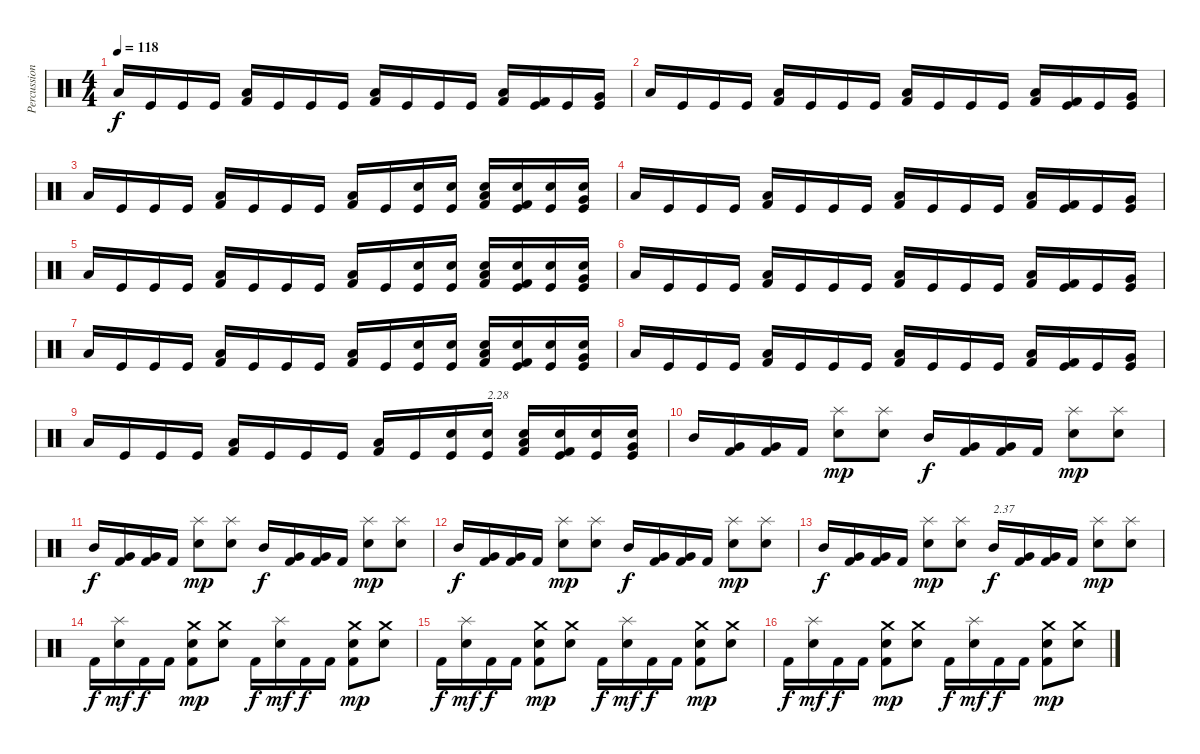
\track ("Percussions" "Percussion") {instrument percussion}
\staff {score}
\articulation defaults
\ts (4 4)
\tempo 118
\clef neutral
\ks c "Low Floor Tom (hit)".16{dy f} "Kick (hit)".16 "Kick (hit)".16 "Kick (hit)".16
("Kick (hit) 2" "Low Floor Tom (hit)").16 "Kick (hit)".16 "Kick (hit)".16 "Kick (hit)".16 ("Kick (hit) 2" "Low Floor Tom (hit)").16 "Kick (hit)".16 "Kick (hit)".16 "Kick (hit)".16 ("Kick (hit) 2" "Low Floor Tom (hit)").16 ("Kick (hit) 2" "Kick (hit)").16 "Kick (hit)".16 ("Kick (hit)" "Very Low Tom (hit)").16 |
"Low Floor Tom (hit)".16 "Kick (hit)".16 "Kick (hit)".16 "Kick (hit)".16 ("Kick (hit) 2" "Low Floor Tom (hit)").16 "Kick (hit)".16 "Kick (hit)".16 "Kick (hit)".16 ("Kick (hit) 2" "Low Floor Tom (hit)").16 "Kick (hit)".16 "Kick (hit)".16 "Kick (hit)".16 ("Kick (hit) 2" "Low Floor Tom (hit)").16 ("Kick (hit) 2" "Kick (hit)").16 "Kick (hit)".16 ("Kick (hit)" "Very Low Tom (hit)").16 |
"Low Floor Tom (hit)".16 "Kick (hit)".16 "Kick (hit)".16 "Kick (hit)".16 ("Kick (hit) 2" "Low Floor Tom (hit)").16 "Kick (hit)".16 "Kick (hit)".16 "Kick (hit)".16 ("Kick (hit) 2" "Low Floor Tom (hit)").16 "Kick (hit)".16 ("Kick (hit)" "Electric Snare (hit)").16 ("Kick (hit)" "Electric Snare (hit)").16 ("Kick (hit) 2" "Low Floor Tom (hit)" "Electric Snare (hit)").16 ("Kick (hit) 2" "Kick (hit)" "Electric Snare (hit)").16 ("Kick (hit)" "Electric Snare (hit)").16 ("Kick (hit)" "Very Low Tom (hit)" "Electric Snare (hit)").16 |
"Low Floor Tom (hit)".16 "Kick (hit)".16 "Kick (hit)".16 "Kick (hit)".16 ("Kick (hit) 2" "Low Floor Tom (hit)").16 "Kick (hit)".16 "Kick (hit)".16 "Kick (hit)".16 ("Kick (hit) 2" "Low Floor Tom (hit)").16 "Kick (hit)".16 "Kick (hit)".16 "Kick (hit)".16 ("Kick (hit) 2" "Low Floor Tom (hit)").16 ("Kick (hit) 2" "Kick (hit)").16 "Kick (hit)".16 ("Kick (hit)" "Very Low Tom (hit)").16 |
"Low Floor Tom (hit)".16 "Kick (hit)".16 "Kick (hit)".16 "Kick (hit)".16 ("Kick (hit) 2" "Low Floor Tom (hit)").16 "Kick (hit)".16 "Kick (hit)".16 "Kick (hit)".16 ("Kick (hit) 2" "Low Floor Tom (hit)").16 "Kick (hit)".16 ("Kick (hit)" "Electric Snare (hit)").16 ("Kick (hit)" "Electric Snare (hit)").16 ("Kick (hit) 2" "Low Floor Tom (hit)" "Electric Snare (hit)").16 ("Kick (hit) 2" "Kick (hit)" "Electric Snare (hit)").16 ("Kick (hit)" "Electric Snare (hit)").16 ("Kick (hit)" "Very Low Tom (hit)" "Electric Snare (hit)").16 |
"Low Floor Tom (hit)".16 "Kick (hit)".16 "Kick (hit)".16 "Kick (hit)".16 ("Kick (hit) 2" "Low Floor Tom (hit)").16 "Kick (hit)".16 "Kick (hit)".16 "Kick (hit)".16 ("Kick (hit) 2" "Low Floor Tom (hit)").16 "Kick (hit)".16 "Kick (hit)".16 "Kick (hit)".16 ("Kick (hit) 2" "Low Floor Tom (hit)").16 ("Kick (hit) 2" "Kick (hit)").16 "Kick (hit)".16 ("Kick (hit)" "Very Low Tom (hit)").16 |
"Low Floor Tom (hit)".16 "Kick (hit)".16 "Kick (hit)".16 "Kick (hit)".16 ("Kick (hit) 2" "Low Floor Tom (hit)").16 "Kick (hit)".16 "Kick (hit)".16 "Kick (hit)".16 ("Kick (hit) 2" "Low Floor Tom (hit)").16 "Kick (hit)".16 ("Kick (hit)" "Electric Snare (hit)").16 ("Kick (hit)" "Electric Snare (hit)").16 ("Kick (hit) 2" "Low Floor Tom (hit)" "Electric Snare (hit)").16 ("Kick (hit) 2" "Kick (hit)" "Electric Snare (hit)").16 ("Kick (hit)" "Electric Snare (hit)").16 ("Kick (hit)" "Very Low Tom (hit)" "Electric Snare (hit)").16 |
"Low Floor Tom (hit)".16 "Kick (hit)".16 "Kick (hit)".16 "Kick (hit)".16 ("Kick (hit) 2" "Low Floor Tom (hit)").16 "Kick (hit)".16 "Kick (hit)".16 "Kick (hit)".16 ("Kick (hit) 2" "Low Floor Tom (hit)").16 "Kick (hit)".16 "Kick (hit)".16 "Kick (hit)".16 ("Kick (hit) 2" "Low Floor Tom (hit)").16 ("Kick (hit) 2" "Kick (hit)").16 "Kick (hit)".16 ("Kick (hit)" "Very Low Tom (hit)").16 |
"Low Floor Tom (hit)".16 "Kick (hit)".16 "Kick (hit)".16 "Kick (hit)".16 ("Kick (hit) 2" "Low Floor Tom (hit)").16 "Kick (hit)".16 "Kick (hit)".16 "Kick (hit)".16 ("Kick (hit) 2" "Low Floor Tom (hit)").16 "Kick (hit)".16 ("Kick (hit)" "Electric Snare (hit)").16 ("Kick (hit)" "Electric Snare (hit)").16{txt "2.28"} ("Kick (hit) 2" "Low Floor Tom (hit)" "Electric Snare (hit)").16 ("Kick (hit) 2" "Kick (hit)" "Electric Snare (hit)").16 ("Kick (hit)" "Electric Snare (hit)").16 ("Kick (hit)" "Very Low Tom (hit)" "Electric Snare (hit)").16 |
"Mid Tom (hit)".16 ("Kick (hit) 2" "Very Low Tom (hit)").16 ("Kick (hit) 2" "Very Low Tom (hit)").16 "Kick (hit) 2".16 ("Electric Snare (hit)" "Splash (hit)").8{dy mp} ("Electric Snare (hit)" "Splash (hit)").8 "Mid Tom (hit)".16{dy f} ("Kick (hit) 2" "Very Low Tom (hit)").16 ("Kick (hit) 2" "Very Low Tom (hit)").16 "Kick (hit) 2".16 ("Electric Snare (hit)" "Splash (hit)").8{dy mp} ("Electric Snare (hit)" "Splash (hit)").8 |
"Mid Tom (hit)".16{dy f} ("Kick (hit) 2" "Very Low Tom (hit)").16 ("Kick (hit) 2" "Very Low Tom (hit)").16 "Kick (hit) 2".16 ("Electric Snare (hit)" "Splash (hit)").8{dy mp} ("Electric Snare (hit)" "Splash (hit)").8 "Mid Tom (hit)".16{dy f} ("Kick (hit) 2" "Very Low Tom (hit)").16 ("Kick (hit) 2" "Very Low Tom (hit)").16 "Kick (hit) 2".16 ("Electric Snare (hit)" "Splash (hit)").8{dy mp} ("Electric Snare (hit)" "Splash (hit)").8 |
"Mid Tom (hit)".16{dy f} ("Kick (hit) 2" "Very Low Tom (hit)").16 ("Kick (hit) 2" "Very Low Tom (hit)").16 "Kick (hit) 2".16 ("Electric Snare (hit)" "Splash (hit)").8{dy mp} ("Electric Snare (hit)" "Splash (hit)").8 "Mid Tom (hit)".16{dy f} ("Kick (hit) 2" "Very Low Tom (hit)").16 ("Kick (hit) 2" "Very Low Tom (hit)").16 "Kick (hit) 2".16 ("Electric Snare (hit)" "Splash (hit)").8{dy mp} ("Electric Snare (hit)" "Splash (hit)").8 |
"Mid Tom (hit)".16{dy f} ("Kick (hit) 2" "Very Low Tom (hit)").16 ("Kick (hit) 2" "Very Low Tom (hit)").16 "Kick (hit) 2".16 ("Electric Snare (hit)" "Splash (hit)").8{dy mp} ("Electric Snare (hit)" "Splash (hit)").8 "Mid Tom (hit)".16{txt "2.37" dy f} ("Kick (hit) 2" "Very Low Tom (hit)").16 ("Kick (hit) 2" "Very Low Tom (hit)").16 "Kick (hit) 2".16 ("Electric Snare (hit)" "Splash (hit)").8{dy mp} ("Electric Snare (hit)" "Splash (hit)").8 |
"Kick (hit) 2".16{dy f} ("Electric Snare (hit)" "Splash (hit)").16{dy mf} "Kick (hit) 2".16{dy f} "Kick (hit) 2".16 ("Kick (hit) 2" "Electric Snare (hit)" "Crash medium (hit)").8{dy mp} ("Electric Snare (hit)" "Crash medium (hit)").8 "Kick (hit) 2".16{dy f} ("Electric Snare (hit)" "Splash (hit)").16{dy mf} "Kick (hit) 2".16{dy f} "Kick (hit) 2".16 ("Kick (hit) 2" "Electric Snare (hit)" "Crash medium (hit)").8{dy mp} ("Electric Snare (hit)" "Crash medium (hit)").8 |
"Kick (hit) 2".16{dy f} ("Electric Snare (hit)" "Splash (hit)").16{dy mf} "Kick (hit) 2".16{dy f} "Kick (hit) 2".16 ("Kick (hit) 2" "Electric Snare (hit)" "Crash medium (hit)").8{dy mp} ("Electric Snare (hit)" "Crash medium (hit)").8 "Kick (hit) 2".16{dy f} ("Electric Snare (hit)" "Splash (hit)").16{dy mf} "Kick (hit) 2".16{dy f} "Kick (hit) 2".16 ("Kick (hit) 2" "Electric Snare (hit)" "Crash medium (hit)").8{dy mp} ("Electric Snare (hit)" "Crash medium (hit)").8 |
"Kick (hit) 2".16{dy f} ("Electric Snare (hit)" "Splash (hit)").16{dy mf} "Kick (hit) 2".16{dy f} "Kick (hit) 2".16 ("Kick (hit) 2" "Electric Snare (hit)" "Crash medium (hit)").8{dy mp} ("Electric Snare (hit)" "Crash medium (hit)").8 "Kick (hit) 2".16{dy f} ("Electric Snare (hit)" "Splash (hit)").16{dy mf} "Kick (hit) 2".16{dy f} "Kick (hit) 2".16 ("Kick (hit) 2" "Electric Snare (hit)" "Crash medium (hit)").8{dy mp} ("Electric Snare (hit)" "Crash medium (hit)").8
